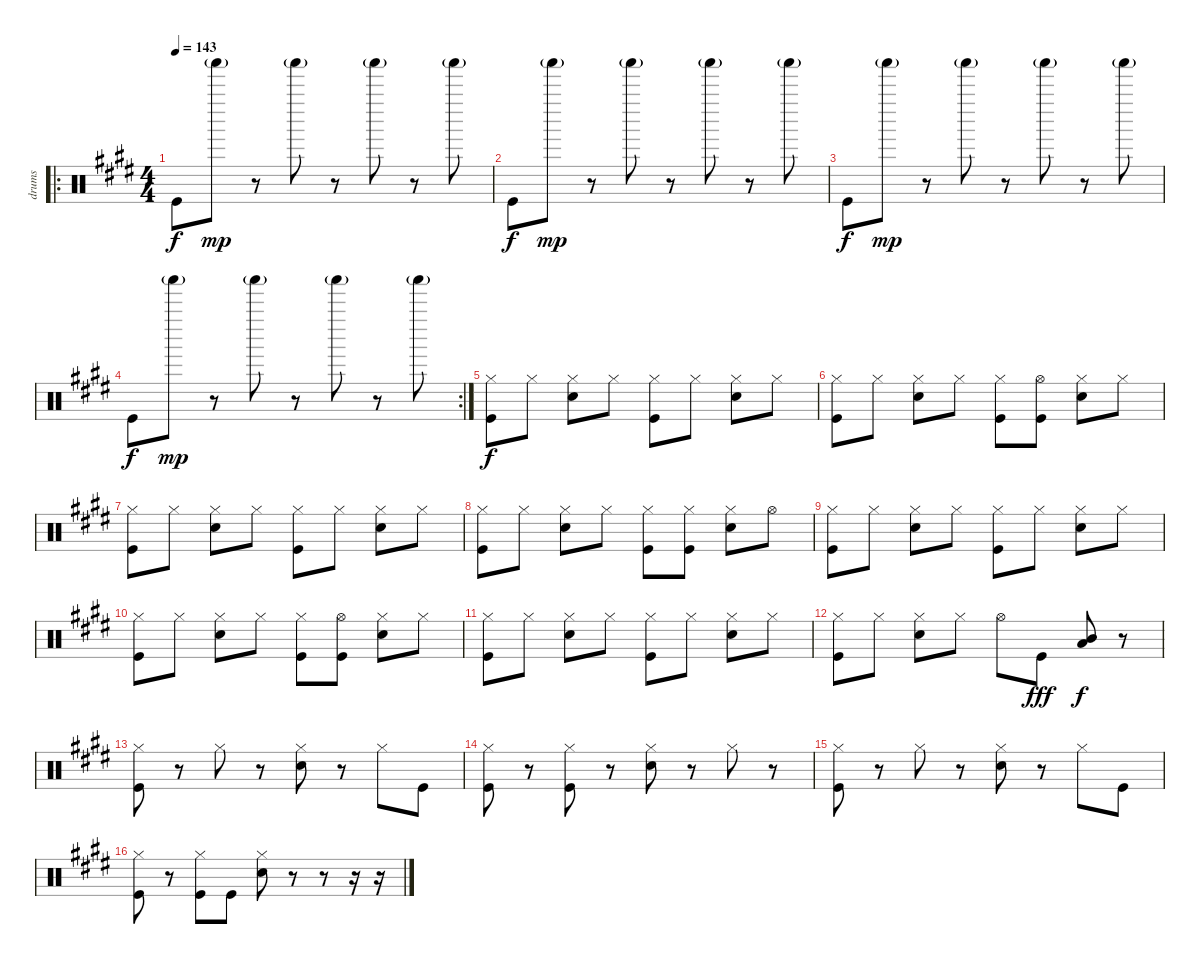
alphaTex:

\track ("drums" "drums") {instrument percussion}
\staff {score}
\articulation defaults
\ro
\ts (4 4)
\tempo 143
\clef neutral
\ks c#minor "Kick (hit)".8{dy f} "Shaker (hit)"{g}.8{dy mp}
r.8 "Shaker (hit)"{g}.8 r.8 "Shaker (hit)"{g}.8 r.8 "Shaker (hit)"{g}.8 |
"Kick (hit)".8{dy f} "Shaker (hit)"{g}.8{dy mp} r.8 "Shaker (hit)"{g}.8 r.8 "Shaker (hit)"{g}.8 r.8 "Shaker (hit)"{g}.8 |
"Kick (hit)".8{dy f} "Shaker (hit)"{g}.8{dy mp} r.8 "Shaker (hit)"{g}.8 r.8 "Shaker (hit)"{g}.8 r.8 "Shaker (hit)"{g}.8 |
\rc 2 "Kick (hit)".8{dy f} "Shaker (hit)"{g}.8{dy mp}
r.8 "Shaker (hit)"{g}.8 r.8 "Shaker (hit)"{g}.8 r.8 "Shaker (hit)"{g}.8 |
("Hi-Hat (closed)" "Kick (hit)").8{dy f} "Hi-Hat (closed)".8 ("Hi-Hat (closed)" "Electric Snare (hit)").8 "Hi-Hat (closed)".8 ("Hi-Hat (closed)" "Kick (hit)").8 "Hi-Hat (closed)".8 ("Hi-Hat (closed)" "Electric Snare (hit)").8 "Hi-Hat (closed)".8 |
("Hi-Hat (closed)" "Kick (hit)").8 "Hi-Hat (closed)".8 ("Hi-Hat (closed)" "Electric Snare (hit)").8 "Hi-Hat (closed)".8 ("Hi-Hat (closed)" "Kick (hit)").8 ("Hi-Hat (open)" "Kick (hit)").8 ("Hi-Hat (closed)" "Electric Snare (hit)").8 "Hi-Hat (closed)".8 |
("Hi-Hat (closed)" "Kick (hit)").8 "Hi-Hat (closed)".8 ("Hi-Hat (closed)" "Electric Snare (hit)").8 "Hi-Hat (closed)".8 ("Hi-Hat (closed)" "Kick (hit)").8 "Hi-Hat (closed)".8 ("Hi-Hat (closed)" "Electric Snare (hit)").8 "Hi-Hat (closed)".8 |
("Hi-Hat (closed)" "Kick (hit)").8 "Hi-Hat (closed)".8 ("Hi-Hat (closed)" "Electric Snare (hit)").8 "Hi-Hat (closed)".8 ("Hi-Hat (closed)" "Kick (hit)").8 ("Hi-Hat (closed)" "Kick (hit)").8 ("Hi-Hat (closed)" "Electric Snare (hit)").8 "Hi-Hat (open)".8 |
("Hi-Hat (closed)" "Kick (hit)").8 "Hi-Hat (closed)".8 ("Hi-Hat (closed)" "Electric Snare (hit)").8 "Hi-Hat (closed)".8 ("Hi-Hat (closed)" "Kick (hit)").8 "Hi-Hat (closed)".8 ("Hi-Hat (closed)" "Electric Snare (hit)").8 "Hi-Hat (closed)".8 |
("Hi-Hat (closed)" "Kick (hit)").8 "Hi-Hat (closed)".8 ("Hi-Hat (closed)" "Electric Snare (hit)").8 "Hi-Hat (closed)".8 ("Hi-Hat (closed)" "Kick (hit)").8 ("Hi-Hat (open)" "Kick (hit)").8 ("Hi-Hat (closed)" "Electric Snare (hit)").8 "Hi-Hat (closed)".8 |
("Hi-Hat (closed)" "Kick (hit)").8 "Hi-Hat (closed)".8 ("Hi-Hat (closed)" "Electric Snare (hit)").8 "Hi-Hat (closed)".8 ("Hi-Hat (closed)" "Kick (hit)").8 "Hi-Hat (closed)".8 ("Hi-Hat (closed)" "Electric Snare (hit)").8 "Hi-Hat (closed)".8 |
("Hi-Hat (closed)" "Kick (hit)").8 "Hi-Hat (closed)".8 ("Hi-Hat (closed)" "Electric Snare (hit)").8 "Hi-Hat (closed)".8 "Hi-Hat (open)".8 "Kick (hit)".8{dy fff} ("Mid Tom (hit)" "Low Tom (hit)").8{dy f} r.8 |
("Hi-Hat (closed)" "Kick (hit)").8 r.8 "Hi-Hat (closed)".8 r.8 ("Hi-Hat (closed)" "Electric Snare (hit)").8 r.8 "Hi-Hat (closed)".8 "Kick (hit)".8 |
("Hi-Hat (closed)" "Kick (hit)").8 r.8 ("Hi-Hat (closed)" "Kick (hit)").8 r.8 ("Hi-Hat (closed)" "Electric Snare (hit)").8 r.8 "Hi-Hat (closed)".8 r.8 |
("Hi-Hat (closed)" "Kick (hit)").8 r.8 "Hi-Hat (closed)".8 r.8 ("Hi-Hat (closed)" "Electric Snare (hit)").8 r.8 "Hi-Hat (closed)".8 "Kick (hit)".8 |
("Hi-Hat (closed)" "Kick (hit)").8 r.8 ("Hi-Hat (closed)" "Kick (hit)").8 "Kick (hit)".8 ("Hi-Hat (closed)" "Electric Snare (hit)").8 r.8 r.8 r.16 r.16
